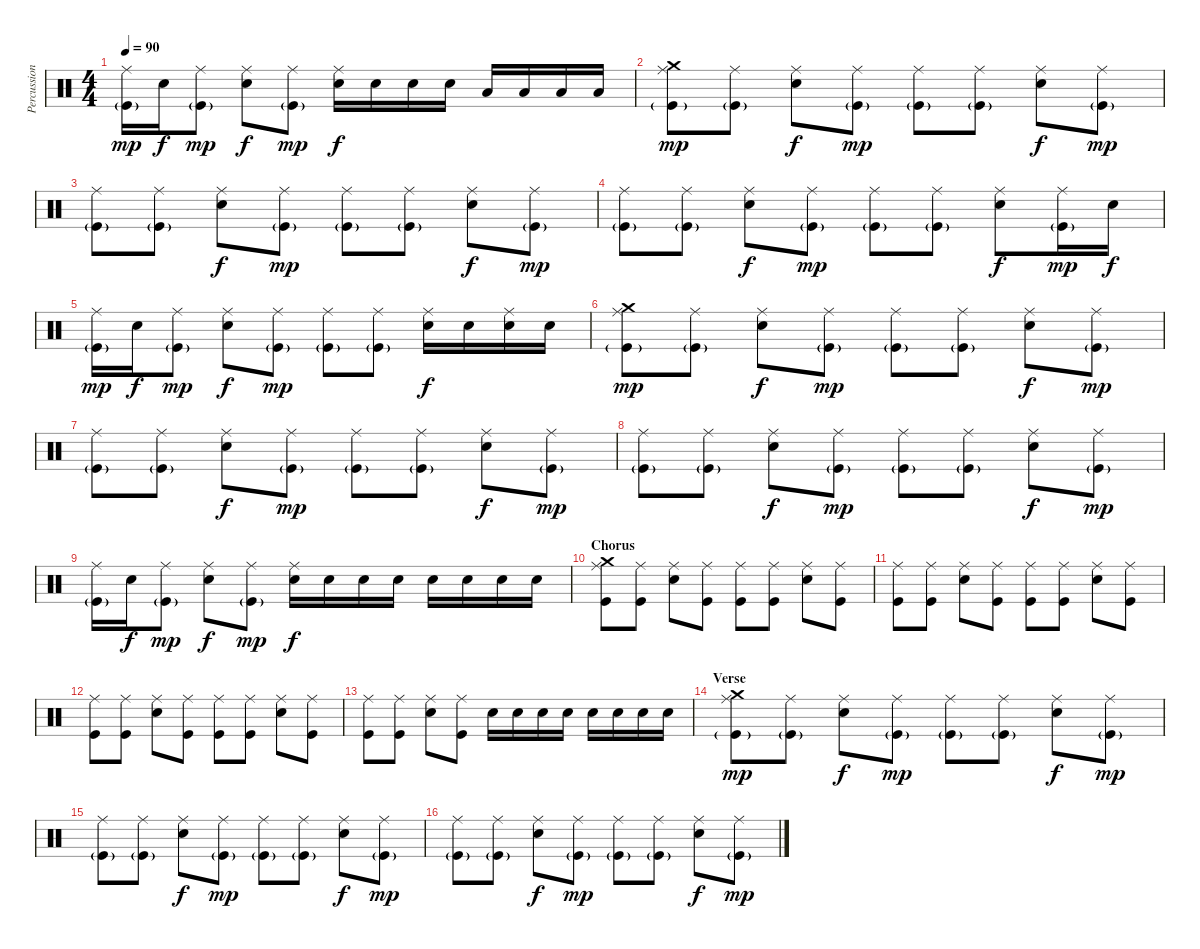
\track ("Percussions" "Percussion") {instrument percussion}
\staff {score}
\articulation defaults
\ts (4 4)
\tempo 90
\clef neutral
\ks c
("Ride (middle)" "Kick (hit)"{g}).16{dy mp} "Snare (hit) 2".16{dy f} ("Ride (middle)" "Kick (hit)"{g}).8{dy mp} ("Ride (middle)" "Snare (hit) 2").8{dy f} ("Ride (middle)" "Kick (hit)"{g}).8{dy mp} ("Ride (middle)" "Snare (hit) 2").16{dy f} "Snare (hit) 2".16 "Snare (hit) 2".16 "Snare (hit) 2".16 "Low Tom (hit)".16 "Low Tom (hit)".16 "Low Tom (hit)".16 "Low Tom (hit)".16 |
("Ride (middle)" "Crash medium (hit)" "Kick (hit)"{g}).8{dy mp} ("Ride (middle)" "Kick (hit)"{g}).8 ("Ride (middle)" "Snare (hit) 2").8{dy f} ("Ride (middle)" "Kick (hit)"{g}).8{dy mp} ("Ride (middle)" "Kick (hit)"{g}).8 ("Ride (middle)" "Kick (hit)"{g}).8 ("Ride (middle)" "Snare (hit) 2").8{dy f} ("Ride (middle)" "Kick (hit)"{g}).8{dy mp} |
("Ride (middle)" "Kick (hit)"{g}).8 ("Ride (middle)" "Kick (hit)"{g}).8 ("Ride (middle)" "Snare (hit) 2").8{dy f} ("Ride (middle)" "Kick (hit)"{g}).8{dy mp} ("Ride (middle)" "Kick (hit)"{g}).8 ("Ride (middle)" "Kick (hit)"{g}).8 ("Ride (middle)" "Snare (hit) 2").8{dy f} ("Ride (middle)" "Kick (hit)"{g}).8{dy mp} |
("Ride (middle)" "Kick (hit)"{g}).8 ("Ride (middle)" "Kick (hit)"{g}).8 ("Ride (middle)" "Snare (hit) 2").8{dy f} ("Ride (middle)" "Kick (hit)"{g}).8{dy mp} ("Ride (middle)" "Kick (hit)"{g}).8 ("Ride (middle)" "Kick (hit)"{g}).8 ("Ride (middle)" "Snare (hit) 2").8{dy f} ("Ride (middle)" "Kick (hit)"{g}).16{dy mp} "Snare (hit) 2".16{dy f} |
("Ride (middle)" "Kick (hit)"{g}).16{dy mp} "Snare (hit) 2".16{dy f} ("Ride (middle)" "Kick (hit)"{g}).8{dy mp} ("Ride (middle)" "Snare (hit) 2").8{dy f} ("Ride (middle)" "Kick (hit)"{g}).8{dy mp} ("Ride (middle)" "Kick (hit)"{g}).8 ("Ride (middle)" "Kick (hit)"{g}).8 ("Ride (middle)" "Snare (hit) 2").16{dy f} "Snare (hit) 2".16 ("Ride (middle)" "Snare (hit) 2").16 "Snare (hit) 2".16 |
("Ride (middle)" "Crash medium (hit)" "Kick (hit)"{g}).8{dy mp} ("Ride (middle)" "Kick (hit)"{g}).8 ("Ride (middle)" "Snare (hit) 2").8{dy f} ("Ride (middle)" "Kick (hit)"{g}).8{dy mp} ("Ride (middle)" "Kick (hit)"{g}).8 ("Ride (middle)" "Kick (hit)"{g}).8 ("Ride (middle)" "Snare (hit) 2").8{dy f} ("Ride (middle)" "Kick (hit)"{g}).8{dy mp} |
("Ride (middle)" "Kick (hit)"{g}).8 ("Ride (middle)" "Kick (hit)"{g}).8 ("Ride (middle)" "Snare (hit) 2").8{dy f} ("Ride (middle)" "Kick (hit)"{g}).8{dy mp} ("Ride (middle)" "Kick (hit)"{g}).8 ("Ride (middle)" "Kick (hit)"{g}).8 ("Ride (middle)" "Snare (hit) 2").8{dy f} ("Ride (middle)" "Kick (hit)"{g}).8{dy mp} |
("Ride (middle)" "Kick (hit)"{g}).8 ("Ride (middle)" "Kick (hit)"{g}).8 ("Ride (middle)" "Snare (hit) 2").8{dy f} ("Ride (middle)" "Kick (hit)"{g}).8{dy mp} ("Ride (middle)" "Kick (hit)"{g}).8 ("Ride (middle)" "Kick (hit)"{g}).8 ("Ride (middle)" "Snare (hit) 2").8{dy f} ("Ride (middle)" "Kick (hit)"{g}).8{dy mp} |
("Ride (middle)" "Kick (hit)"{g}).16 "Snare (hit) 2".16{dy f} ("Ride (middle)" "Kick (hit)"{g}).8{dy mp} ("Ride (middle)" "Snare (hit) 2").8{dy f} ("Ride (middle)" "Kick (hit)"{g}).8{dy mp} ("Ride (middle)" "Snare (hit) 2").16{dy f} "Snare (hit) 2".16 "Snare (hit) 2".16 "Snare (hit) 2".16 "Snare (hit) 2".16 "Snare (hit) 2".16 "Snare (hit) 2".16 "Snare (hit) 2".16 |
\section ("" "Chorus")
("Ride (middle)" "Crash medium (hit)" "Kick (hit)").8 ("Ride (middle)" "Kick (hit)").8 ("Ride (middle)" "Snare (hit) 2").8 ("Ride (middle)" "Kick (hit)").8 ("Ride (middle)" "Kick (hit)").8 ("Ride (middle)" "Kick (hit)").8 ("Ride (middle)" "Snare (hit) 2").8 ("Ride (middle)" "Kick (hit)").8 |
("Ride (middle)" "Kick (hit)").8 ("Ride (middle)" "Kick (hit)").8 ("Ride (middle)" "Snare (hit) 2").8 ("Ride (middle)" "Kick (hit)").8 ("Ride (middle)" "Kick (hit)").8 ("Ride (middle)" "Kick (hit)").8 ("Ride (middle)" "Snare (hit) 2").8 ("Ride (middle)" "Kick (hit)").8 |
("Ride (middle)" "Kick (hit)").8 ("Ride (middle)" "Kick (hit)").8 ("Ride (middle)" "Snare (hit) 2").8 ("Ride (middle)" "Kick (hit)").8 ("Ride (middle)" "Kick (hit)").8 ("Ride (middle)" "Kick (hit)").8 ("Ride (middle)" "Snare (hit) 2").8 ("Ride (middle)" "Kick (hit)").8 |
("Ride (middle)" "Kick (hit)").8 ("Ride (middle)" "Kick (hit)").8 ("Ride (middle)" "Snare (hit) 2").8 ("Ride (middle)" "Kick (hit)").8 "Snare (hit) 2".16 "Snare (hit) 2".16 "Snare (hit) 2".16 "Snare (hit) 2".16 "Snare (hit) 2".16 "Snare (hit) 2".16 "Snare (hit) 2".16 "Snare (hit) 2".16 |
\section ("" "Verse")
("Ride (middle)" "Crash medium (hit)" "Kick (hit)"{g}).8{dy mp} ("Ride (middle)" "Kick (hit)"{g}).8 ("Ride (middle)" "Snare (hit) 2").8{dy f} ("Ride (middle)" "Kick (hit)"{g}).8{dy mp} ("Ride (middle)" "Kick (hit)"{g}).8 ("Ride (middle)" "Kick (hit)"{g}).8 ("Ride (middle)" "Snare (hit) 2").8{dy f} ("Ride (middle)" "Kick (hit)"{g}).8{dy mp} |
("Ride (middle)" "Kick (hit)"{g}).8 ("Ride (middle)" "Kick (hit)"{g}).8 ("Ride (middle)" "Snare (hit) 2").8{dy f} ("Ride (middle)" "Kick (hit)"{g}).8{dy mp} ("Ride (middle)" "Kick (hit)"{g}).8 ("Ride (middle)" "Kick (hit)"{g}).8 ("Ride (middle)" "Snare (hit) 2").8{dy f} ("Ride (middle)" "Kick (hit)"{g}).8{dy mp} |
("Ride (middle)" "Kick (hit)"{g}).8 ("Ride (middle)" "Kick (hit)"{g}).8 ("Ride (middle)" "Snare (hit) 2").8{dy f} ("Ride (middle)" "Kick (hit)"{g}).8{dy mp} ("Ride (middle)" "Kick (hit)"{g}).8 ("Ride (middle)" "Kick (hit)"{g}).8 ("Ride (middle)" "Snare (hit) 2").8{dy f} ("Ride (middle)" "Kick (hit)"{g}).8{dy mp}
